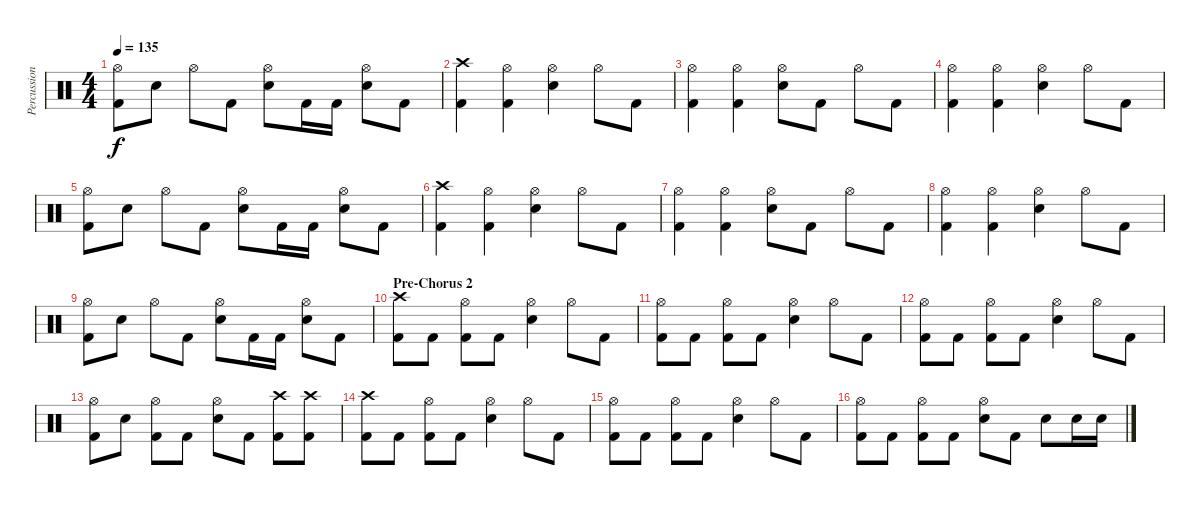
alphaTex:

\track ("Percussion" "Percussion") {instrument percussion}
\staff {score}
\articulation defaults
\ts (4 4)
\tempo 135
\clef neutral
\ks c
("Kick (hit) 2" "Hi-Hat (open)").8{dy f} "Electric Snare (hit)".8 "Hi-Hat (open)".8 "Kick (hit) 2".8 ("Electric Snare (hit)" "Hi-Hat (open)").8 "Kick (hit) 2".16 "Kick (hit) 2".16 ("Electric Snare (hit)" "Hi-Hat (open)").8 "Kick (hit) 2".8 |
("Kick (hit) 2" "Crash high (hit)").4 ("Kick (hit) 2" "Hi-Hat (open)").4 ("Electric Snare (hit)" "Hi-Hat (open)").4 "Hi-Hat (open)".8 "Kick (hit) 2".8 |
("Kick (hit) 2" "Hi-Hat (open)").4 ("Kick (hit) 2" "Hi-Hat (open)").4 ("Electric Snare (hit)" "Hi-Hat (open)").8 "Kick (hit) 2".8 "Hi-Hat (open)".8 "Kick (hit) 2".8 |
("Kick (hit) 2" "Hi-Hat (open)").4 ("Kick (hit) 2" "Hi-Hat (open)").4 ("Electric Snare (hit)" "Hi-Hat (open)").4 "Hi-Hat (open)".8 "Kick (hit) 2".8 |
("Kick (hit) 2" "Hi-Hat (open)").8 "Electric Snare (hit)".8 "Hi-Hat (open)".8 "Kick (hit) 2".8 ("Electric Snare (hit)" "Hi-Hat (open)").8 "Kick (hit) 2".16 "Kick (hit) 2".16 ("Electric Snare (hit)" "Hi-Hat (open)").8 "Kick (hit) 2".8 |
("Kick (hit) 2" "Crash high (hit)").4 ("Kick (hit) 2" "Hi-Hat (open)").4 ("Electric Snare (hit)" "Hi-Hat (open)").4 "Hi-Hat (open)".8 "Kick (hit) 2".8 |
("Kick (hit) 2" "Hi-Hat (open)").4 ("Kick (hit) 2" "Hi-Hat (open)").4 ("Electric Snare (hit)" "Hi-Hat (open)").8 "Kick (hit) 2".8 "Hi-Hat (open)".8 "Kick (hit) 2".8 |
("Kick (hit) 2" "Hi-Hat (open)").4 ("Kick (hit) 2" "Hi-Hat (open)").4 ("Electric Snare (hit)" "Hi-Hat (open)").4 "Hi-Hat (open)".8 "Kick (hit) 2".8 |
("Kick (hit) 2" "Hi-Hat (open)").8 "Electric Snare (hit)".8 "Hi-Hat (open)".8 "Kick (hit) 2".8 ("Electric Snare (hit)" "Hi-Hat (open)").8 "Kick (hit) 2".16 "Kick (hit) 2".16 ("Electric Snare (hit)" "Hi-Hat (open)").8 "Kick (hit) 2".8 |
\section ("" "Pre-Chorus 2")
("Kick (hit) 2" "Crash high (hit)").8 "Kick (hit) 2".8 ("Kick (hit) 2" "Hi-Hat (open)").8 "Kick (hit) 2".8 ("Electric Snare (hit)" "Hi-Hat (open)").4 "Hi-Hat (open)".8 "Kick (hit) 2".8 |
("Kick (hit) 2" "Hi-Hat (open)").8 "Kick (hit) 2".8 ("Kick (hit) 2" "Hi-Hat (open)").8 "Kick (hit) 2".8 ("Electric Snare (hit)" "Hi-Hat (open)").4 "Hi-Hat (open)".8 "Kick (hit) 2".8 |
("Kick (hit) 2" "Hi-Hat (open)").8 "Kick (hit) 2".8 ("Kick (hit) 2" "Hi-Hat (open)").8 "Kick (hit) 2".8 ("Electric Snare (hit)" "Hi-Hat (open)").4 "Hi-Hat (open)".8 "Kick (hit) 2".8 |
("Kick (hit) 2" "Hi-Hat (open)").8 "Electric Snare (hit)".8 ("Kick (hit) 2" "Hi-Hat (open)").8 "Kick (hit) 2".8 ("Electric Snare (hit)" "Hi-Hat (open)").8 "Kick (hit) 2".8 ("Kick (hit) 2" "Crash high (hit)").8 ("Kick (hit) 2" "Crash high (hit)").8 |
("Kick (hit) 2" "Crash high (hit)").8 "Kick (hit) 2".8 ("Kick (hit) 2" "Hi-Hat (open)").8 "Kick (hit) 2".8 ("Electric Snare (hit)" "Hi-Hat (open)").4 "Hi-Hat (open)".8 "Kick (hit) 2".8 |
("Kick (hit) 2" "Hi-Hat (open)").8 "Kick (hit) 2".8 ("Kick (hit) 2" "Hi-Hat (open)").8 "Kick (hit) 2".8 ("Electric Snare (hit)" "Hi-Hat (open)").4 "Hi-Hat (open)".8 "Kick (hit) 2".8 |
("Kick (hit) 2" "Hi-Hat (open)").8 "Kick (hit) 2".8 ("Kick (hit) 2" "Hi-Hat (open)").8 "Kick (hit) 2".8 ("Electric Snare (hit)" "Hi-Hat (open)").8 "Kick (hit) 2".8 "Electric Snare (hit)".8 "Electric Snare (hit)".16 "Electric Snare (hit)".16
